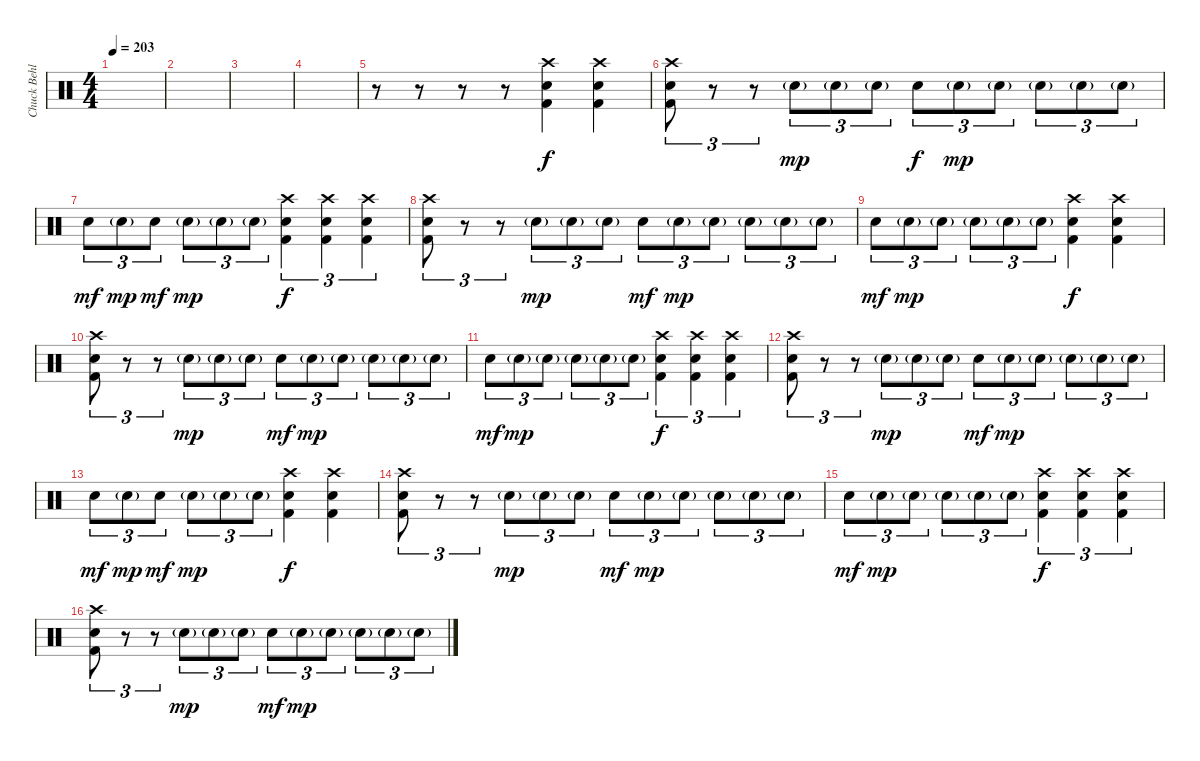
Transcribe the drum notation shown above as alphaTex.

\track ("Chuck Behler" "Chuck Behl") {instrument percussion}
\staff {score}
\articulation defaults
\ts (4 4)
\tempo 203
\clef neutral
\ks c
|
|
|
|
r.8 r.8 r.8 r.8 ("Crash high (hit)" "Snare (hit) 2" "Kick (hit) 2").4 ("Crash high (hit)" "Snare (hit) 2" "Kick (hit) 2").4 |
("Crash high (hit)" "Snare (hit) 2" "Kick (hit) 2").8{tu (3 2)} r.8{tu (3 2)} r.8{tu (3 2)} "Snare (hit) 2"{g}.8{tu (3 2) dy mp} "Snare (hit) 2"{g}.8{tu (3 2)} "Snare (hit) 2"{g}.8{tu (3 2)} "Snare (hit) 2".8{tu (3 2) dy f} "Snare (hit) 2"{g}.8{tu (3 2) dy mp} "Snare (hit) 2"{g}.8{tu (3 2)} "Snare (hit) 2"{g}.8{tu (3 2)} "Snare (hit) 2"{g}.8{tu (3 2)} "Snare (hit) 2"{g}.8{tu (3 2)} |
"Snare (hit) 2".8{tu (3 2) dy mf} "Snare (hit) 2"{g}.8{tu (3 2) dy mp} "Snare (hit) 2".8{tu (3 2) dy mf} "Snare (hit) 2"{g}.8{tu (3 2) dy mp} "Snare (hit) 2"{g}.8{tu (3 2)} "Snare (hit) 2"{g}.8{tu (3 2)} ("Crash high (hit)" "Snare (hit) 2" "Kick (hit) 2").4{tu (3 2) dy f} ("Crash high (hit)" "Snare (hit) 2" "Kick (hit) 2").4{tu (3 2)} ("Crash high (hit)" "Snare (hit) 2" "Kick (hit) 2").4{tu (3 2)} |
("Crash high (hit)" "Snare (hit) 2" "Kick (hit) 2").8{tu (3 2)} r.8{tu (3 2)} r.8{tu (3 2)} "Snare (hit) 2"{g}.8{tu (3 2) dy mp} "Snare (hit) 2"{g}.8{tu (3 2)} "Snare (hit) 2"{g}.8{tu (3 2)} "Snare (hit) 2".8{tu (3 2) dy mf} "Snare (hit) 2"{g}.8{tu (3 2) dy mp} "Snare (hit) 2"{g}.8{tu (3 2)} "Snare (hit) 2"{g}.8{tu (3 2)} "Snare (hit) 2"{g}.8{tu (3 2)} "Snare (hit) 2"{g}.8{tu (3 2)} |
"Snare (hit) 2".8{tu (3 2) dy mf} "Snare (hit) 2"{g}.8{tu (3 2) dy mp} "Snare (hit) 2"{g}.8{tu (3 2)} "Snare (hit) 2"{g}.8{tu (3 2)} "Snare (hit) 2"{g}.8{tu (3 2)} "Snare (hit) 2"{g}.8{tu (3 2)} ("Crash high (hit)" "Snare (hit) 2" "Kick (hit) 2").4{dy f} ("Crash high (hit)" "Snare (hit) 2" "Kick (hit) 2").4 |
("Crash high (hit)" "Snare (hit) 2" "Kick (hit) 2").8{tu (3 2)} r.8{tu (3 2)} r.8{tu (3 2)} "Snare (hit) 2"{g}.8{tu (3 2) dy mp} "Snare (hit) 2"{g}.8{tu (3 2)} "Snare (hit) 2"{g}.8{tu (3 2)} "Snare (hit) 2".8{tu (3 2) dy mf} "Snare (hit) 2"{g}.8{tu (3 2) dy mp} "Snare (hit) 2"{g}.8{tu (3 2)} "Snare (hit) 2"{g}.8{tu (3 2)} "Snare (hit) 2"{g}.8{tu (3 2)} "Snare (hit) 2"{g}.8{tu (3 2)} |
"Snare (hit) 2".8{tu (3 2) dy mf} "Snare (hit) 2"{g}.8{tu (3 2) dy mp} "Snare (hit) 2"{g}.8{tu (3 2)} "Snare (hit) 2"{g}.8{tu (3 2)} "Snare (hit) 2"{g}.8{tu (3 2)} "Snare (hit) 2"{g}.8{tu (3 2)} ("Crash high (hit)" "Snare (hit) 2" "Kick (hit) 2").4{tu (3 2) dy f} ("Crash high (hit)" "Snare (hit) 2" "Kick (hit) 2").4{tu (3 2)} ("Crash high (hit)" "Snare (hit) 2" "Kick (hit) 2").4{tu (3 2)} |
("Crash high (hit)" "Snare (hit) 2" "Kick (hit) 2").8{tu (3 2)} r.8{tu (3 2)} r.8{tu (3 2)} "Snare (hit) 2"{g}.8{tu (3 2) dy mp} "Snare (hit) 2"{g}.8{tu (3 2)} "Snare (hit) 2"{g}.8{tu (3 2)} "Snare (hit) 2".8{tu (3 2) dy mf} "Snare (hit) 2"{g}.8{tu (3 2) dy mp} "Snare (hit) 2"{g}.8{tu (3 2)} "Snare (hit) 2"{g}.8{tu (3 2)} "Snare (hit) 2"{g}.8{tu (3 2)} "Snare (hit) 2"{g}.8{tu (3 2)} |
"Snare (hit) 2".8{tu (3 2) dy mf} "Snare (hit) 2"{g}.8{tu (3 2) dy mp} "Snare (hit) 2".8{tu (3 2) dy mf} "Snare (hit) 2"{g}.8{tu (3 2) dy mp} "Snare (hit) 2"{g}.8{tu (3 2)} "Snare (hit) 2"{g}.8{tu (3 2)} ("Crash high (hit)" "Snare (hit) 2" "Kick (hit) 2").4{dy f} ("Crash high (hit)" "Snare (hit) 2" "Kick (hit) 2").4 |
("Crash high (hit)" "Snare (hit) 2" "Kick (hit) 2").8{tu (3 2)} r.8{tu (3 2)} r.8{tu (3 2)} "Snare (hit) 2"{g}.8{tu (3 2) dy mp} "Snare (hit) 2"{g}.8{tu (3 2)} "Snare (hit) 2"{g}.8{tu (3 2)} "Snare (hit) 2".8{tu (3 2) dy mf} "Snare (hit) 2"{g}.8{tu (3 2) dy mp} "Snare (hit) 2"{g}.8{tu (3 2)} "Snare (hit) 2"{g}.8{tu (3 2)} "Snare (hit) 2"{g}.8{tu (3 2)} "Snare (hit) 2"{g}.8{tu (3 2)} |
"Snare (hit) 2".8{tu (3 2) dy mf} "Snare (hit) 2"{g}.8{tu (3 2) dy mp} "Snare (hit) 2"{g}.8{tu (3 2)} "Snare (hit) 2"{g}.8{tu (3 2)} "Snare (hit) 2"{g}.8{tu (3 2)} "Snare (hit) 2"{g}.8{tu (3 2)} ("Crash high (hit)" "Snare (hit) 2" "Kick (hit) 2").4{tu (3 2) dy f} ("Crash high (hit)" "Snare (hit) 2" "Kick (hit) 2").4{tu (3 2)} ("Crash high (hit)" "Snare (hit) 2" "Kick (hit) 2").4{tu (3 2)} |
("Crash high (hit)" "Snare (hit) 2" "Kick (hit) 2").8{tu (3 2)} r.8{tu (3 2)} r.8{tu (3 2)} "Snare (hit) 2"{g}.8{tu (3 2) dy mp} "Snare (hit) 2"{g}.8{tu (3 2)} "Snare (hit) 2"{g}.8{tu (3 2)} "Snare (hit) 2".8{tu (3 2) dy mf} "Snare (hit) 2"{g}.8{tu (3 2) dy mp} "Snare (hit) 2"{g}.8{tu (3 2)} "Snare (hit) 2"{g}.8{tu (3 2)} "Snare (hit) 2"{g}.8{tu (3 2)} "Snare (hit) 2"{g}.8{tu (3 2)}
